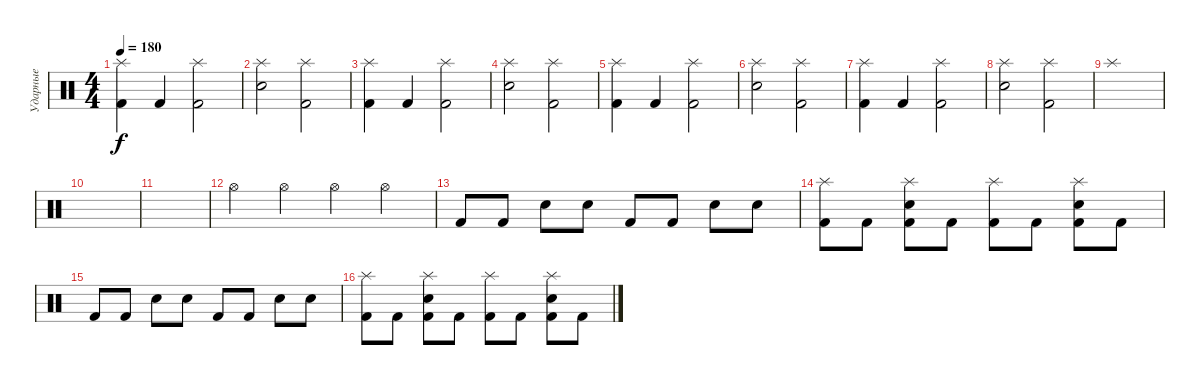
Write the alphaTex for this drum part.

\track ("Ударные" "Ударные") {instrument percussion}
\staff {score}
\articulation defaults
\ts (4 4)
\tempo 180
\clef neutral
\ks c
("Splash (hit)" "Kick (hit) 2").4{dy f} "Kick (hit) 2".4 ("Splash (hit)" "Kick (hit) 2").2 |
("Splash (hit)" "Electric Snare (hit)").2 ("Splash (hit)" "Kick (hit) 2").2 |
("Splash (hit)" "Kick (hit) 2").4 "Kick (hit) 2".4 ("Splash (hit)" "Kick (hit) 2").2 |
("Splash (hit)" "Electric Snare (hit)").2 ("Splash (hit)" "Kick (hit) 2").2 |
("Splash (hit)" "Kick (hit) 2").4 "Kick (hit) 2".4 ("Splash (hit)" "Kick (hit) 2").2 |
("Splash (hit)" "Electric Snare (hit)").2 ("Splash (hit)" "Kick (hit) 2").2 |
("Splash (hit)" "Kick (hit) 2").4 "Kick (hit) 2".4 ("Splash (hit)" "Kick (hit) 2").2 |
("Splash (hit)" "Electric Snare (hit)").2 ("Splash (hit)" "Kick (hit) 2").2 |
"Splash (hit)".1 |
|
|
"Hi-Hat (open)".4 "Hi-Hat (open)".4 "Hi-Hat (open)".4 "Hi-Hat (open)".4 |
"Kick (hit) 2".8 "Kick (hit) 2".8 "Electric Snare (hit)".8 "Electric Snare (hit)".8 "Kick (hit) 2".8 "Kick (hit) 2".8 "Electric Snare (hit)".8 "Electric Snare (hit)".8 |
("Splash (hit)" "Kick (hit) 2").8 "Kick (hit) 2".8 ("Splash (hit)" "Kick (hit) 2" "Electric Snare (hit)").8 "Kick (hit) 2".8 ("Splash (hit)" "Kick (hit) 2").8 "Kick (hit) 2".8 ("Splash (hit)" "Kick (hit) 2" "Electric Snare (hit)").8 "Kick (hit) 2".8 |
"Kick (hit) 2".8 "Kick (hit) 2".8 "Electric Snare (hit)".8 "Electric Snare (hit)".8 "Kick (hit) 2".8 "Kick (hit) 2".8 "Electric Snare (hit)".8 "Electric Snare (hit)".8 |
("Splash (hit)" "Kick (hit) 2").8 "Kick (hit) 2".8 ("Splash (hit)" "Kick (hit) 2" "Electric Snare (hit)").8 "Kick (hit) 2".8 ("Splash (hit)" "Kick (hit) 2").8 "Kick (hit) 2".8 ("Splash (hit)" "Kick (hit) 2" "Electric Snare (hit)").8 "Kick (hit) 2".8
